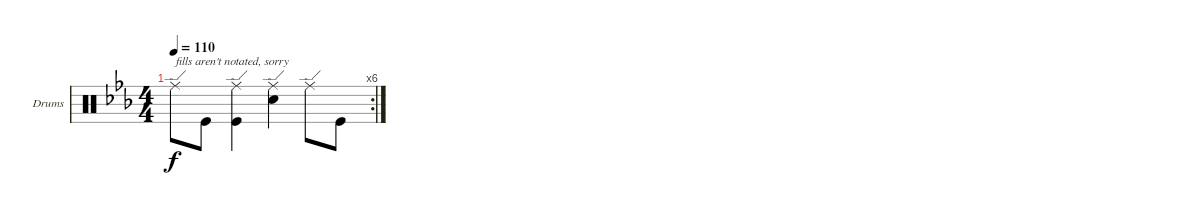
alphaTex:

\defaultSystemsLayout 4
\bracketExtendMode groupsimilarinstruments
\firstSystemTrackNameOrientation horizontal
\otherSystemsTrackNameOrientation horizontal
\track ("Drumkit" "Drums") {instrument percussion}
\staff {score}
\articulation defaults
\rc 6
\ts (4 4)
\tempo 110
\clef neutral
\ks cminor "Ride (edge)".8{txt "fills aren't notated, sorry" dy f} "Kick (hit)".8
("Kick (hit)" "Ride (edge)").4 ("Snare (hit) 2" "Ride (edge)").4 "Ride (edge)".8 "Kick (hit)".8
